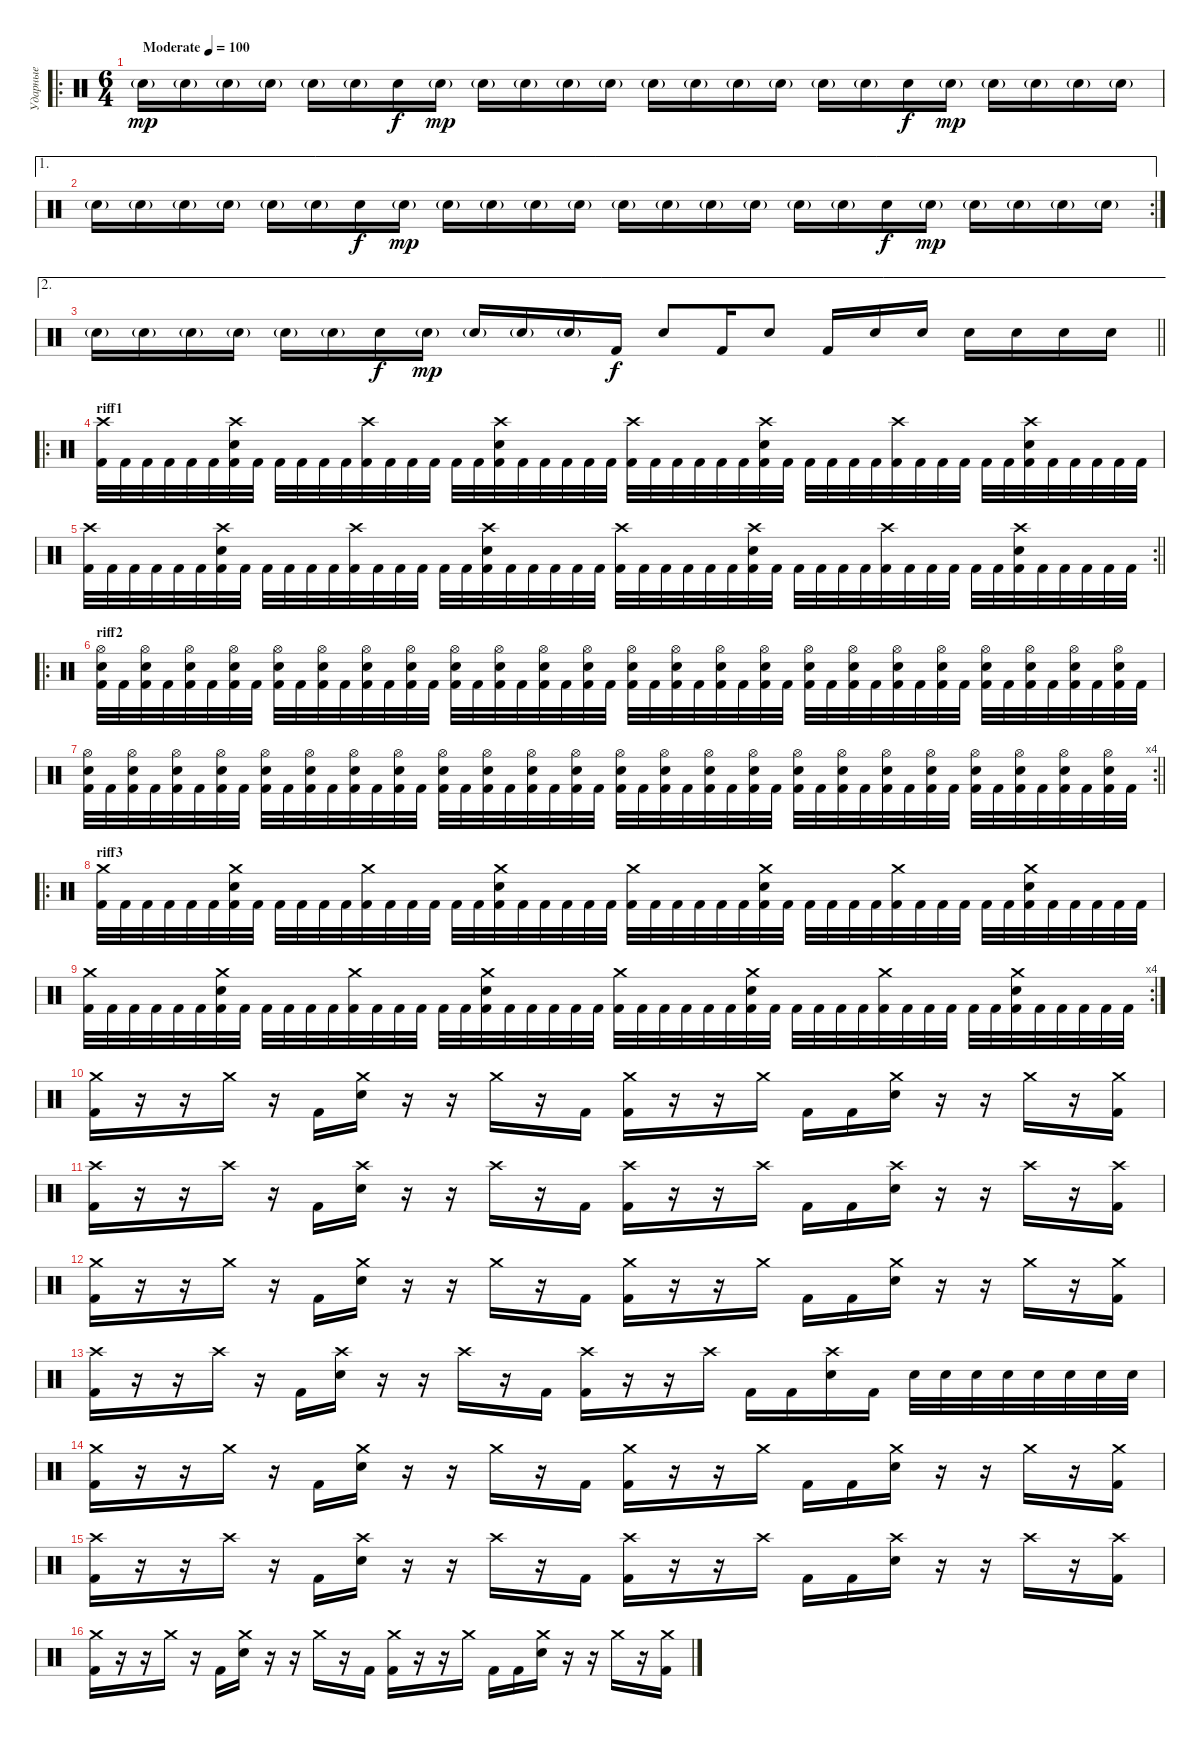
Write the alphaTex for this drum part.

\track ("Ударные" "Ударные") {instrument percussion}
\staff {score}
\articulation defaults
\ro
\ts (6 4)
\tempo (100 "Moderate")
\clef neutral
\ks c "Electric Snare (hit)"{g}.16{dy mp} "Electric Snare (hit)"{g}.16 "Electric Snare (hit)"{g}.16 "Electric Snare (hit)"{g}.16 "Electric Snare (hit)"{g}.16 "Electric Snare (hit)"{g}.16 "Electric Snare (hit)".16{dy f} "Electric Snare (hit)"{g}.16{dy mp} "Electric Snare (hit)"{g}.16 "Electric Snare (hit)"{g}.16 "Electric Snare (hit)"{g}.16 "Electric Snare (hit)"{g}.16 "Electric Snare (hit)"{g}.16 "Electric Snare (hit)"{g}.16 "Electric Snare (hit)"{g}.16 "Electric Snare (hit)"{g}.16 "Electric Snare (hit)"{g}.16 "Electric Snare (hit)"{g}.16 "Electric Snare (hit)".16{dy f} "Electric Snare (hit)"{g}.16{dy mp} "Electric Snare (hit)"{g}.16 "Electric Snare (hit)"{g}.16 "Electric Snare (hit)"{g}.16 "Electric Snare (hit)"{g}.16
|
\ae 1
\rc 2 "Electric Snare (hit)"{g}.16 "Electric Snare (hit)"{g}.16 "Electric Snare (hit)"{g}.16 "Electric Snare (hit)"{g}.16 "Electric Snare (hit)"{g}.16 "Electric Snare (hit)"{g}.16 "Electric Snare (hit)".16{dy f} "Electric Snare (hit)"{g}.16{dy mp} "Electric Snare (hit)"{g}.16 "Electric Snare (hit)"{g}.16 "Electric Snare (hit)"{g}.16 "Electric Snare (hit)"{g}.16 "Electric Snare (hit)"{g}.16 "Electric Snare (hit)"{g}.16 "Electric Snare (hit)"{g}.16 "Electric Snare (hit)"{g}.16 "Electric Snare (hit)"{g}.16 "Electric Snare (hit)"{g}.16 "Electric Snare (hit)".16{dy f} "Electric Snare (hit)"{g}.16{dy mp} "Electric Snare (hit)"{g}.16 "Electric Snare (hit)"{g}.16 "Electric Snare (hit)"{g}.16 "Electric Snare (hit)"{g}.16
|
\ae 2
\barLineRight lightlight "Electric Snare (hit)"{g}.16 "Electric Snare (hit)"{g}.16 "Electric Snare (hit)"{g}.16 "Electric Snare (hit)"{g}.16 "Electric Snare (hit)"{g}.16 "Electric Snare (hit)"{g}.16 "Electric Snare (hit)".16{dy f} "Electric Snare (hit)"{g}.16{dy mp} "Electric Snare (hit)"{g}.16 "Electric Snare (hit)"{g}.16 "Electric Snare (hit)"{g}.16 "Kick (hit) 2".16{dy f} "Electric Snare (hit)".8 "Kick (hit) 2".16 "Electric Snare (hit)".8 "Kick (hit) 2".16 "Electric Snare (hit)".16 "Electric Snare (hit)".16 "Electric Snare (hit)".16 "Electric Snare (hit)".16 "Electric Snare (hit)".16 "Electric Snare (hit)".16
|
\ro
\section ("" "riff1")
("Crash high (hit)" "Kick (hit) 2").32 "Kick (hit) 2".32 "Kick (hit) 2".32 "Kick (hit) 2".32 "Kick (hit) 2".32 "Kick (hit) 2".32 ("Crash high (hit)" "Electric Snare (hit)" "Kick (hit) 2").32 "Kick (hit) 2".32 "Kick (hit) 2".32 "Kick (hit) 2".32 "Kick (hit) 2".32 "Kick (hit) 2".32 ("Crash high (hit)" "Kick (hit) 2").32 "Kick (hit) 2".32 "Kick (hit) 2".32 "Kick (hit) 2".32 "Kick (hit) 2".32 "Kick (hit) 2".32 ("Crash high (hit)" "Electric Snare (hit)" "Kick (hit) 2").32 "Kick (hit) 2".32 "Kick (hit) 2".32 "Kick (hit) 2".32 "Kick (hit) 2".32 "Kick (hit) 2".32 ("Crash high (hit)" "Kick (hit) 2").32 "Kick (hit) 2".32 "Kick (hit) 2".32 "Kick (hit) 2".32 "Kick (hit) 2".32 "Kick (hit) 2".32 ("Crash high (hit)" "Electric Snare (hit)" "Kick (hit) 2").32 "Kick (hit) 2".32 "Kick (hit) 2".32 "Kick (hit) 2".32 "Kick (hit) 2".32 "Kick (hit) 2".32 ("Crash high (hit)" "Kick (hit) 2").32 "Kick (hit) 2".32 "Kick (hit) 2".32 "Kick (hit) 2".32 "Kick (hit) 2".32 "Kick (hit) 2".32 ("Crash high (hit)" "Electric Snare (hit)" "Kick (hit) 2").32 "Kick (hit) 2".32 "Kick (hit) 2".32 "Kick (hit) 2".32 "Kick (hit) 2".32 "Kick (hit) 2".32 |
\rc 2
\barLineRight lightlight
("Crash high (hit)" "Kick (hit) 2").32 "Kick (hit) 2".32 "Kick (hit) 2".32 "Kick (hit) 2".32 "Kick (hit) 2".32 "Kick (hit) 2".32 ("Crash high (hit)" "Electric Snare (hit)" "Kick (hit) 2").32 "Kick (hit) 2".32 "Kick (hit) 2".32 "Kick (hit) 2".32 "Kick (hit) 2".32 "Kick (hit) 2".32 ("Crash high (hit)" "Kick (hit) 2").32 "Kick (hit) 2".32 "Kick (hit) 2".32 "Kick (hit) 2".32 "Kick (hit) 2".32 "Kick (hit) 2".32 ("Crash high (hit)" "Electric Snare (hit)" "Kick (hit) 2").32 "Kick (hit) 2".32 "Kick (hit) 2".32 "Kick (hit) 2".32 "Kick (hit) 2".32 "Kick (hit) 2".32 ("Crash high (hit)" "Kick (hit) 2").32 "Kick (hit) 2".32 "Kick (hit) 2".32 "Kick (hit) 2".32 "Kick (hit) 2".32 "Kick (hit) 2".32 ("Crash high (hit)" "Electric Snare (hit)" "Kick (hit) 2").32 "Kick (hit) 2".32 "Kick (hit) 2".32 "Kick (hit) 2".32 "Kick (hit) 2".32 "Kick (hit) 2".32 ("Crash high (hit)" "Kick (hit) 2").32 "Kick (hit) 2".32 "Kick (hit) 2".32 "Kick (hit) 2".32 "Kick (hit) 2".32 "Kick (hit) 2".32 ("Crash high (hit)" "Electric Snare (hit)" "Kick (hit) 2").32 "Kick (hit) 2".32 "Kick (hit) 2".32 "Kick (hit) 2".32 "Kick (hit) 2".32 "Kick (hit) 2".32 |
\ro
\section ("" "riff2")
("Hi-Hat (open)" "Electric Snare (hit)" "Kick (hit) 2").32 "Kick (hit) 2".32 ("Hi-Hat (open)" "Electric Snare (hit)" "Kick (hit) 2").32 "Kick (hit) 2".32 ("Hi-Hat (open)" "Electric Snare (hit)" "Kick (hit) 2").32 "Kick (hit) 2".32 ("Hi-Hat (open)" "Electric Snare (hit)" "Kick (hit) 2").32 "Kick (hit) 2".32 ("Hi-Hat (open)" "Electric Snare (hit)" "Kick (hit) 2").32 "Kick (hit) 2".32 ("Hi-Hat (open)" "Electric Snare (hit)" "Kick (hit) 2").32 "Kick (hit) 2".32 ("Hi-Hat (open)" "Electric Snare (hit)" "Kick (hit) 2").32 "Kick (hit) 2".32 ("Hi-Hat (open)" "Electric Snare (hit)" "Kick (hit) 2").32 "Kick (hit) 2".32 ("Hi-Hat (open)" "Electric Snare (hit)" "Kick (hit) 2").32 "Kick (hit) 2".32 ("Hi-Hat (open)" "Electric Snare (hit)" "Kick (hit) 2").32 "Kick (hit) 2".32 ("Hi-Hat (open)" "Electric Snare (hit)" "Kick (hit) 2").32 "Kick (hit) 2".32 ("Hi-Hat (open)" "Electric Snare (hit)" "Kick (hit) 2").32 "Kick (hit) 2".32 ("Hi-Hat (open)" "Electric Snare (hit)" "Kick (hit) 2").32 "Kick (hit) 2".32 ("Hi-Hat (open)" "Electric Snare (hit)" "Kick (hit) 2").32 "Kick (hit) 2".32 ("Hi-Hat (open)" "Electric Snare (hit)" "Kick (hit) 2").32 "Kick (hit) 2".32 ("Hi-Hat (open)" "Electric Snare (hit)" "Kick (hit) 2").32 "Kick (hit) 2".32 ("Hi-Hat (open)" "Electric Snare (hit)" "Kick (hit) 2").32 "Kick (hit) 2".32 ("Hi-Hat (open)" "Electric Snare (hit)" "Kick (hit) 2").32 "Kick (hit) 2".32 ("Hi-Hat (open)" "Electric Snare (hit)" "Kick (hit) 2").32 "Kick (hit) 2".32 ("Hi-Hat (open)" "Electric Snare (hit)" "Kick (hit) 2").32 "Kick (hit) 2".32 ("Hi-Hat (open)" "Electric Snare (hit)" "Kick (hit) 2").32 "Kick (hit) 2".32 ("Hi-Hat (open)" "Electric Snare (hit)" "Kick (hit) 2").32 "Kick (hit) 2".32 ("Hi-Hat (open)" "Electric Snare (hit)" "Kick (hit) 2").32 "Kick (hit) 2".32 ("Hi-Hat (open)" "Electric Snare (hit)" "Kick (hit) 2").32 "Kick (hit) 2".32 |
\rc 4
\barLineRight lightlight
("Hi-Hat (open)" "Electric Snare (hit)" "Kick (hit) 2").32 "Kick (hit) 2".32 ("Hi-Hat (open)" "Electric Snare (hit)" "Kick (hit) 2").32 "Kick (hit) 2".32 ("Hi-Hat (open)" "Electric Snare (hit)" "Kick (hit) 2").32 "Kick (hit) 2".32 ("Hi-Hat (open)" "Electric Snare (hit)" "Kick (hit) 2").32 "Kick (hit) 2".32 ("Hi-Hat (open)" "Electric Snare (hit)" "Kick (hit) 2").32 "Kick (hit) 2".32 ("Hi-Hat (open)" "Electric Snare (hit)" "Kick (hit) 2").32 "Kick (hit) 2".32 ("Hi-Hat (open)" "Electric Snare (hit)" "Kick (hit) 2").32 "Kick (hit) 2".32 ("Hi-Hat (open)" "Electric Snare (hit)" "Kick (hit) 2").32 "Kick (hit) 2".32 ("Hi-Hat (open)" "Electric Snare (hit)" "Kick (hit) 2").32 "Kick (hit) 2".32 ("Hi-Hat (open)" "Electric Snare (hit)" "Kick (hit) 2").32 "Kick (hit) 2".32 ("Hi-Hat (open)" "Electric Snare (hit)" "Kick (hit) 2").32 "Kick (hit) 2".32 ("Hi-Hat (open)" "Electric Snare (hit)" "Kick (hit) 2").32 "Kick (hit) 2".32 ("Hi-Hat (open)" "Electric Snare (hit)" "Kick (hit) 2").32 "Kick (hit) 2".32 ("Hi-Hat (open)" "Electric Snare (hit)" "Kick (hit) 2").32 "Kick (hit) 2".32 ("Hi-Hat (open)" "Electric Snare (hit)" "Kick (hit) 2").32 "Kick (hit) 2".32 ("Hi-Hat (open)" "Electric Snare (hit)" "Kick (hit) 2").32 "Kick (hit) 2".32 ("Hi-Hat (open)" "Electric Snare (hit)" "Kick (hit) 2").32 "Kick (hit) 2".32 ("Hi-Hat (open)" "Electric Snare (hit)" "Kick (hit) 2").32 "Kick (hit) 2".32 ("Hi-Hat (open)" "Electric Snare (hit)" "Kick (hit) 2").32 "Kick (hit) 2".32 ("Hi-Hat (open)" "Electric Snare (hit)" "Kick (hit) 2").32 "Kick (hit) 2".32 ("Hi-Hat (open)" "Electric Snare (hit)" "Kick (hit) 2").32 "Kick (hit) 2".32 ("Hi-Hat (open)" "Electric Snare (hit)" "Kick (hit) 2").32 "Kick (hit) 2".32 ("Hi-Hat (open)" "Electric Snare (hit)" "Kick (hit) 2").32 "Kick (hit) 2".32 ("Hi-Hat (open)" "Electric Snare (hit)" "Kick (hit) 2").32 "Kick (hit) 2".32 |
\ro
\section ("" "riff3")
("Crash medium (hit)" "Kick (hit) 2").32 "Kick (hit) 2".32 "Kick (hit) 2".32 "Kick (hit) 2".32 "Kick (hit) 2".32 "Kick (hit) 2".32 ("Crash medium (hit)" "Electric Snare (hit)" "Kick (hit) 2").32 "Kick (hit) 2".32 "Kick (hit) 2".32 "Kick (hit) 2".32 "Kick (hit) 2".32 "Kick (hit) 2".32 ("Crash medium (hit)" "Kick (hit) 2").32 "Kick (hit) 2".32 "Kick (hit) 2".32 "Kick (hit) 2".32 "Kick (hit) 2".32 "Kick (hit) 2".32 ("Crash medium (hit)" "Electric Snare (hit)" "Kick (hit) 2").32 "Kick (hit) 2".32 "Kick (hit) 2".32 "Kick (hit) 2".32 "Kick (hit) 2".32 "Kick (hit) 2".32 ("Crash medium (hit)" "Kick (hit) 2").32 "Kick (hit) 2".32 "Kick (hit) 2".32 "Kick (hit) 2".32 "Kick (hit) 2".32 "Kick (hit) 2".32 ("Crash medium (hit)" "Electric Snare (hit)" "Kick (hit) 2").32 "Kick (hit) 2".32 "Kick (hit) 2".32 "Kick (hit) 2".32 "Kick (hit) 2".32 "Kick (hit) 2".32 ("Crash medium (hit)" "Kick (hit) 2").32 "Kick (hit) 2".32 "Kick (hit) 2".32 "Kick (hit) 2".32 "Kick (hit) 2".32 "Kick (hit) 2".32 ("Crash medium (hit)" "Electric Snare (hit)" "Kick (hit) 2").32 "Kick (hit) 2".32 "Kick (hit) 2".32 "Kick (hit) 2".32 "Kick (hit) 2".32 "Kick (hit) 2".32 |
\rc 4
("Crash medium (hit)" "Kick (hit) 2").32 "Kick (hit) 2".32 "Kick (hit) 2".32 "Kick (hit) 2".32 "Kick (hit) 2".32 "Kick (hit) 2".32 ("Crash medium (hit)" "Electric Snare (hit)" "Kick (hit) 2").32 "Kick (hit) 2".32 "Kick (hit) 2".32 "Kick (hit) 2".32 "Kick (hit) 2".32 "Kick (hit) 2".32 ("Crash medium (hit)" "Kick (hit) 2").32 "Kick (hit) 2".32 "Kick (hit) 2".32 "Kick (hit) 2".32 "Kick (hit) 2".32 "Kick (hit) 2".32 ("Crash medium (hit)" "Electric Snare (hit)" "Kick (hit) 2").32 "Kick (hit) 2".32 "Kick (hit) 2".32 "Kick (hit) 2".32 "Kick (hit) 2".32 "Kick (hit) 2".32 ("Crash medium (hit)" "Kick (hit) 2").32 "Kick (hit) 2".32 "Kick (hit) 2".32 "Kick (hit) 2".32 "Kick (hit) 2".32 "Kick (hit) 2".32 ("Crash medium (hit)" "Electric Snare (hit)" "Kick (hit) 2").32 "Kick (hit) 2".32 "Kick (hit) 2".32 "Kick (hit) 2".32 "Kick (hit) 2".32 "Kick (hit) 2".32 ("Crash medium (hit)" "Kick (hit) 2").32 "Kick (hit) 2".32 "Kick (hit) 2".32 "Kick (hit) 2".32 "Kick (hit) 2".32 "Kick (hit) 2".32 ("Crash medium (hit)" "Electric Snare (hit)" "Kick (hit) 2").32 "Kick (hit) 2".32 "Kick (hit) 2".32 "Kick (hit) 2".32 "Kick (hit) 2".32 "Kick (hit) 2".32 |
("Crash medium (hit)" "Kick (hit) 2").16 r.16 r.16 "Crash medium (hit)".16 r.16 "Kick (hit) 2".16 ("Crash medium (hit)" "Electric Snare (hit)").16 r.16 r.16 "Crash medium (hit)".16 r.16 "Kick (hit) 2".16 ("Crash medium (hit)" "Kick (hit) 2").16 r.16 r.16 "Crash medium (hit)".16 "Kick (hit) 2".16 "Kick (hit) 2".16 ("Crash medium (hit)" "Electric Snare (hit)").16 r.16 r.16 "Crash medium (hit)".16 r.16 ("Crash medium (hit)" "Kick (hit) 2").16 |
("Crash high (hit)" "Kick (hit) 2").16 r.16 r.16 "Crash high (hit)".16 r.16 "Kick (hit) 2".16 ("Crash high (hit)" "Electric Snare (hit)").16 r.16 r.16 "Crash high (hit)".16 r.16 "Kick (hit) 2".16 ("Crash high (hit)" "Kick (hit) 2").16 r.16 r.16 "Crash high (hit)".16 "Kick (hit) 2".16 "Kick (hit) 2".16 ("Crash high (hit)" "Electric Snare (hit)").16 r.16 r.16 "Crash high (hit)".16 r.16 ("Crash high (hit)" "Kick (hit) 2").16 |
("Crash medium (hit)" "Kick (hit) 2").16 r.16 r.16 "Crash medium (hit)".16 r.16 "Kick (hit) 2".16 ("Crash medium (hit)" "Electric Snare (hit)").16 r.16 r.16 "Crash medium (hit)".16 r.16 "Kick (hit) 2".16 ("Crash medium (hit)" "Kick (hit) 2").16 r.16 r.16 "Crash medium (hit)".16 "Kick (hit) 2".16 "Kick (hit) 2".16 ("Crash medium (hit)" "Electric Snare (hit)").16 r.16 r.16 "Crash medium (hit)".16 r.16 ("Crash medium (hit)" "Kick (hit) 2").16 |
("Crash high (hit)" "Kick (hit) 2").16 r.16 r.16 "Crash high (hit)".16 r.16 "Kick (hit) 2".16 ("Crash high (hit)" "Electric Snare (hit)").16 r.16 r.16 "Crash high (hit)".16 r.16 "Kick (hit) 2".16 ("Crash high (hit)" "Kick (hit) 2").16 r.16 r.16 "Crash high (hit)".16 "Kick (hit) 2".16 "Kick (hit) 2".16 ("Crash high (hit)" "Electric Snare (hit)").16 "Kick (hit) 2".16 "Electric Snare (hit)".32 "Electric Snare (hit)".32 "Electric Snare (hit)".32 "Electric Snare (hit)".32 "Electric Snare (hit)".32 "Electric Snare (hit)".32 "Electric Snare (hit)".32 "Electric Snare (hit)".32 |
("Crash medium (hit)" "Kick (hit) 2").16 r.16 r.16 "Crash medium (hit)".16 r.16 "Kick (hit) 2".16 ("Crash medium (hit)" "Electric Snare (hit)").16 r.16 r.16 "Crash medium (hit)".16 r.16 "Kick (hit) 2".16 ("Crash medium (hit)" "Kick (hit) 2").16 r.16 r.16 "Crash medium (hit)".16 "Kick (hit) 2".16 "Kick (hit) 2".16 ("Crash medium (hit)" "Electric Snare (hit)").16 r.16 r.16 "Crash medium (hit)".16 r.16 ("Crash medium (hit)" "Kick (hit) 2").16 |
("Crash high (hit)" "Kick (hit) 2").16 r.16 r.16 "Crash high (hit)".16 r.16 "Kick (hit) 2".16 ("Crash high (hit)" "Electric Snare (hit)").16 r.16 r.16 "Crash high (hit)".16 r.16 "Kick (hit) 2".16 ("Crash high (hit)" "Kick (hit) 2").16 r.16 r.16 "Crash high (hit)".16 "Kick (hit) 2".16 "Kick (hit) 2".16 ("Crash high (hit)" "Electric Snare (hit)").16 r.16 r.16 "Crash high (hit)".16 r.16 ("Crash high (hit)" "Kick (hit) 2").16 |
("Crash medium (hit)" "Kick (hit) 2").16 r.16 r.16 "Crash medium (hit)".16 r.16 "Kick (hit) 2".16 ("Crash medium (hit)" "Electric Snare (hit)").16 r.16 r.16 "Crash medium (hit)".16 r.16 "Kick (hit) 2".16 ("Crash medium (hit)" "Kick (hit) 2").16 r.16 r.16 "Crash medium (hit)".16 "Kick (hit) 2".16 "Kick (hit) 2".16 ("Crash medium (hit)" "Electric Snare (hit)").16 r.16 r.16 "Crash medium (hit)".16 r.16 ("Crash medium (hit)" "Kick (hit) 2").16
